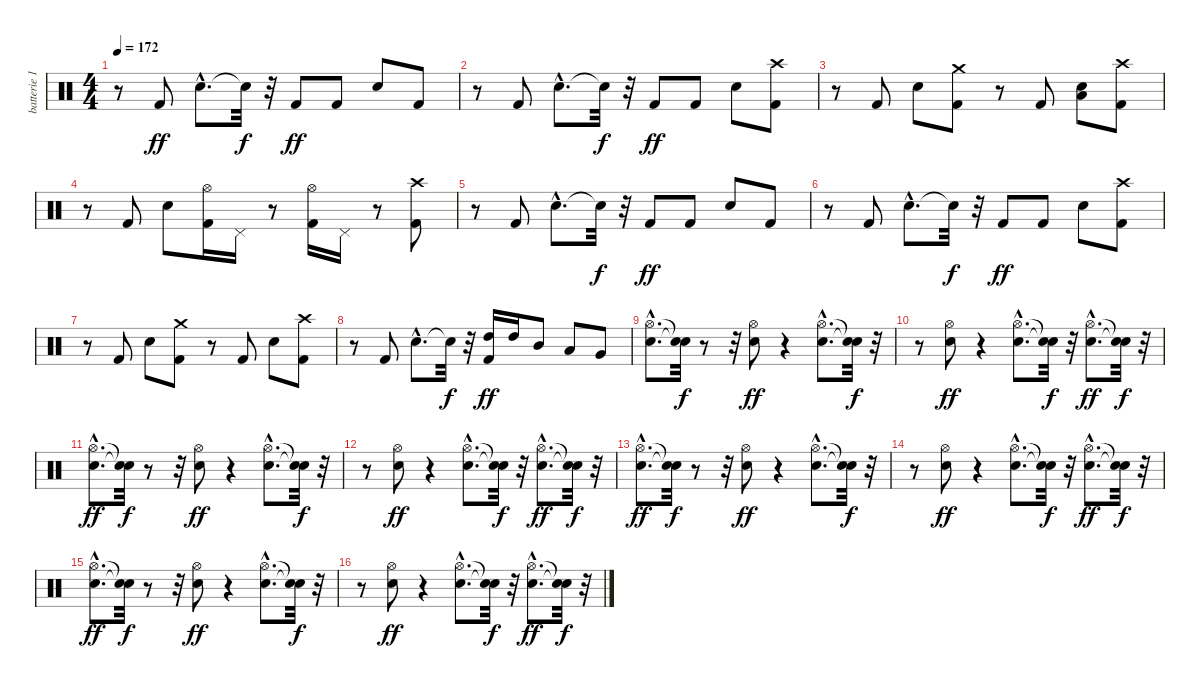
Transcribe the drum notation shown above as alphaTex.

\track ("batterie 1" "batterie 1") {instrument percussion}
\staff {score}
\articulation defaults
\ts (4 4)
\tempo 172
\clef neutral
\ks c
r.8{dy ff} "Kick (hit) 2".8 "Electric Snare (hit)"{hac}.8{d} "Snare (hit)"{t}.32{dy f} r.32 "Kick (hit) 2".8{dy ff} "Kick (hit) 2".8 "Electric Snare (hit)".8 "Kick (hit) 2".8 |
r.8 "Kick (hit) 2".8 "Electric Snare (hit)"{hac}.8{d} "Snare (hit)"{t}.32{dy f} r.32 "Kick (hit) 2".8{dy ff} "Kick (hit) 2".8 "Electric Snare (hit)".8 ("Kick (hit) 2" "Crash high (hit)").8 |
r.8 "Kick (hit) 2".8 "Electric Snare (hit)".8 ("Kick (hit) 2" "Crash medium (hit)").8 r.8 "Kick (hit) 2".8 ("Electric Snare (hit)" "Low Tom (hit)").8 ("Kick (hit) 2" "Crash high (hit)").8 |
r.8 "Kick (hit) 2".8 "Electric Snare (hit)".8 ("Kick (hit) 2" "Hi-Hat (open)").16 "Pedal Hi-Hat (hit)".16 r.8 ("Kick (hit) 2" "Hi-Hat (open)").16 "Pedal Hi-Hat (hit)".16 r.8 ("Kick (hit) 2" "Crash high (hit)").8 |
r.8 "Kick (hit) 2".8 "Electric Snare (hit)"{hac}.8{d} "Snare (hit)"{t}.32{dy f} r.32 "Kick (hit) 2".8{dy ff} "Kick (hit) 2".8 "Electric Snare (hit)".8 "Kick (hit) 2".8 |
r.8 "Kick (hit) 2".8 "Electric Snare (hit)"{hac}.8{d} "Snare (hit)"{t}.32{dy f} r.32 "Kick (hit) 2".8{dy ff} "Kick (hit) 2".8 "Electric Snare (hit)".8 ("Kick (hit) 2" "Crash high (hit)").8 |
r.8 "Kick (hit) 2".8 "Electric Snare (hit)".8 ("Kick (hit) 2" "Crash medium (hit)").8 r.8 "Kick (hit) 2".8 "Electric Snare (hit)".8 ("Kick (hit) 2" "Crash high (hit)").8 |
r.8 "Kick (hit) 2".8 "Electric Snare (hit)"{hac}.8{d} "Snare (hit)"{t}.32{dy f} r.32 ("Kick (hit) 2" "High Tom (hit)").16{dy ff} "High Tom (hit)".16 "Mid Tom (hit)".8 "Low Tom (hit)".8 "Very Low Tom (hit)".8 |
("Electric Snare (hit)"{hac} "Hi-Hat (open)"{hac}).8{d} ("Snare (hit)"{t} "Snare (hit)"{t}).32{dy f} r.8 r.32 ("Electric Snare (hit)" "Hi-Hat (open)").8{dy ff} r.4 ("Electric Snare (hit)"{hac} "Hi-Hat (open)"{hac}).8{d} ("Snare (hit)"{t} "Snare (hit)"{t}).32{dy f} r.32 |
r.8 ("Electric Snare (hit)" "Hi-Hat (open)").8{dy ff} r.4 ("Electric Snare (hit)"{hac} "Hi-Hat (open)"{hac}).8{d} ("Snare (hit)"{t} "Snare (hit)"{t}).32{dy f} r.32 ("Electric Snare (hit)"{hac} "Hi-Hat (open)"{hac}).8{d dy ff} ("Snare (hit)"{t} "Snare (hit)"{t}).32{dy f} r.32 |
("Electric Snare (hit)"{hac} "Hi-Hat (open)"{hac}).8{d dy ff} ("Snare (hit)"{t} "Snare (hit)"{t}).32{dy f} r.8 r.32 ("Electric Snare (hit)" "Hi-Hat (open)").8{dy ff} r.4 ("Electric Snare (hit)"{hac} "Hi-Hat (open)"{hac}).8{d} ("Snare (hit)"{t} "Snare (hit)"{t}).32{dy f} r.32 |
r.8 ("Electric Snare (hit)" "Hi-Hat (open)").8{dy ff} r.4 ("Electric Snare (hit)"{hac} "Hi-Hat (open)"{hac}).8{d} ("Snare (hit)"{t} "Snare (hit)"{t}).32{dy f} r.32 ("Electric Snare (hit)"{hac} "Hi-Hat (open)"{hac}).8{d dy ff} ("Snare (hit)"{t} "Snare (hit)"{t}).32{dy f} r.32 |
("Electric Snare (hit)"{hac} "Hi-Hat (open)"{hac}).8{d dy ff} ("Snare (hit)"{t} "Snare (hit)"{t}).32{dy f} r.8 r.32 ("Electric Snare (hit)" "Hi-Hat (open)").8{dy ff} r.4 ("Electric Snare (hit)"{hac} "Hi-Hat (open)"{hac}).8{d} ("Snare (hit)"{t} "Snare (hit)"{t}).32{dy f} r.32 |
r.8 ("Electric Snare (hit)" "Hi-Hat (open)").8{dy ff} r.4 ("Electric Snare (hit)"{hac} "Hi-Hat (open)"{hac}).8{d} ("Snare (hit)"{t} "Snare (hit)"{t}).32{dy f} r.32 ("Electric Snare (hit)"{hac} "Hi-Hat (open)"{hac}).8{d dy ff} ("Snare (hit)"{t} "Snare (hit)"{t}).32{dy f} r.32 |
("Electric Snare (hit)"{hac} "Hi-Hat (open)"{hac}).8{d dy ff} ("Snare (hit)"{t} "Snare (hit)"{t}).32{dy f} r.8 r.32 ("Electric Snare (hit)" "Hi-Hat (open)").8{dy ff} r.4 ("Electric Snare (hit)"{hac} "Hi-Hat (open)"{hac}).8{d} ("Snare (hit)"{t} "Snare (hit)"{t}).32{dy f} r.32 |
r.8 ("Electric Snare (hit)" "Hi-Hat (open)").8{dy ff} r.4 ("Electric Snare (hit)"{hac} "Hi-Hat (open)"{hac}).8{d} ("Snare (hit)"{t} "Snare (hit)"{t}).32{dy f} r.32 ("Electric Snare (hit)"{hac} "Hi-Hat (open)"{hac}).8{d dy ff} ("Snare (hit)"{t} "Snare (hit)"{t}).32{dy f} r.32
